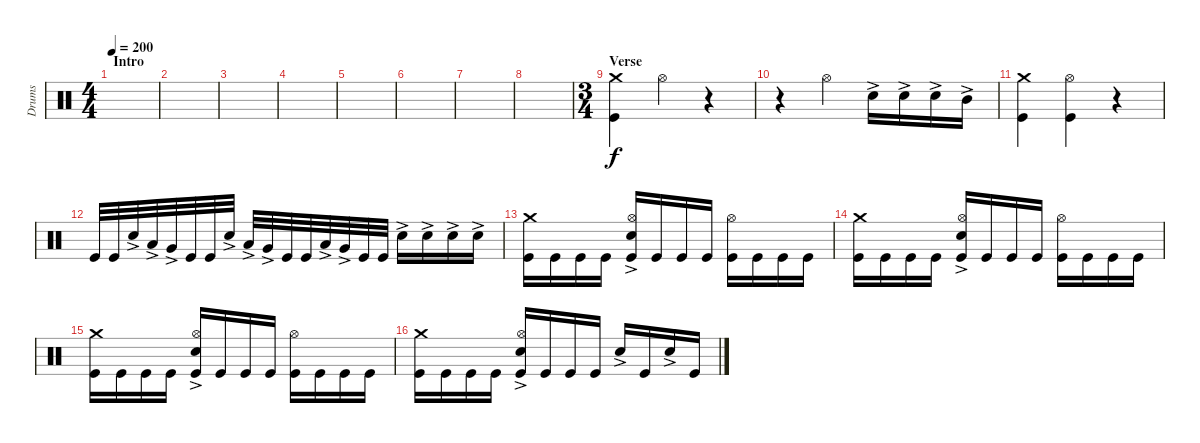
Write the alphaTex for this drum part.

\track ("Drums" "Drums") {instrument percussion}
\staff {score}
\articulation defaults
\ts (4 4)
\section ("" "Intro")
\tempo 200
\clef neutral
\ks c
|
|
|
|
|
|
|
|
\ts (3 4)
\section ("" "Verse")
("Kick (hit)" "Crash medium (hit)").4 "Hi-Hat (open)".4 r.4 |
r.4 "Hi-Hat (open)".4 "Snare (hit) 2"{ac}.16 "Snare (hit) 2"{ac}.16 "Snare (hit) 2"{ac}.16 "Mid Tom (hit)"{ac}.16 |
("Kick (hit)" "Crash medium (hit)").4 ("Hi-Hat (open)" "Kick (hit)").4 r.4 |
"Kick (hit)".32 "Kick (hit)".32 "Snare (hit) 2"{ac}.32 "Low Tom (hit)"{ac}.32 "Very Low Tom (hit)"{ac}.32 "Kick (hit)".32 "Kick (hit)".32 "Snare (hit) 2"{ac}.32 "Low Tom (hit)"{ac}.32 "Very Low Tom (hit)"{ac}.32 "Kick (hit)".32 "Kick (hit)".32 "Low Tom (hit)"{ac}.32 "Very Low Tom (hit)"{ac}.32 "Kick (hit)".32 "Kick (hit)".32 "Snare (hit) 2"{ac}.16 "Snare (hit) 2"{ac}.16 "Snare (hit) 2"{ac}.16 "Snare (hit) 2"{ac}.16 |
("Kick (hit)" "Crash medium (hit)").16 "Kick (hit)".16 "Kick (hit)".16 "Kick (hit)".16 ("Kick (hit)" "Hi-Hat (open)" "Snare (hit) 2"{ac}).16 "Kick (hit)".16 "Kick (hit)".16 "Kick (hit)".16 ("Kick (hit)" "Hi-Hat (open)").16 "Kick (hit)".16 "Kick (hit)".16 "Kick (hit)".16 |
("Kick (hit)" "Crash medium (hit)").16 "Kick (hit)".16 "Kick (hit)".16 "Kick (hit)".16 ("Kick (hit)" "Hi-Hat (open)" "Snare (hit) 2"{ac}).16 "Kick (hit)".16 "Kick (hit)".16 "Kick (hit)".16 ("Kick (hit)" "Hi-Hat (open)").16 "Kick (hit)".16 "Kick (hit)".16 "Kick (hit)".16 |
("Kick (hit)" "Crash medium (hit)").16 "Kick (hit)".16 "Kick (hit)".16 "Kick (hit)".16 ("Kick (hit)" "Hi-Hat (open)" "Snare (hit) 2"{ac}).16 "Kick (hit)".16 "Kick (hit)".16 "Kick (hit)".16 ("Kick (hit)" "Hi-Hat (open)").16 "Kick (hit)".16 "Kick (hit)".16 "Kick (hit)".16 |
("Kick (hit)" "Crash medium (hit)").16 "Kick (hit)".16 "Kick (hit)".16 "Kick (hit)".16 ("Kick (hit)" "Hi-Hat (open)" "Snare (hit) 2"{ac}).16 "Kick (hit)".16 "Kick (hit)".16 "Kick (hit)".16 "Snare (hit) 2"{ac}.16 "Kick (hit)".16 "Snare (hit) 2"{ac}.16 "Kick (hit)".16
